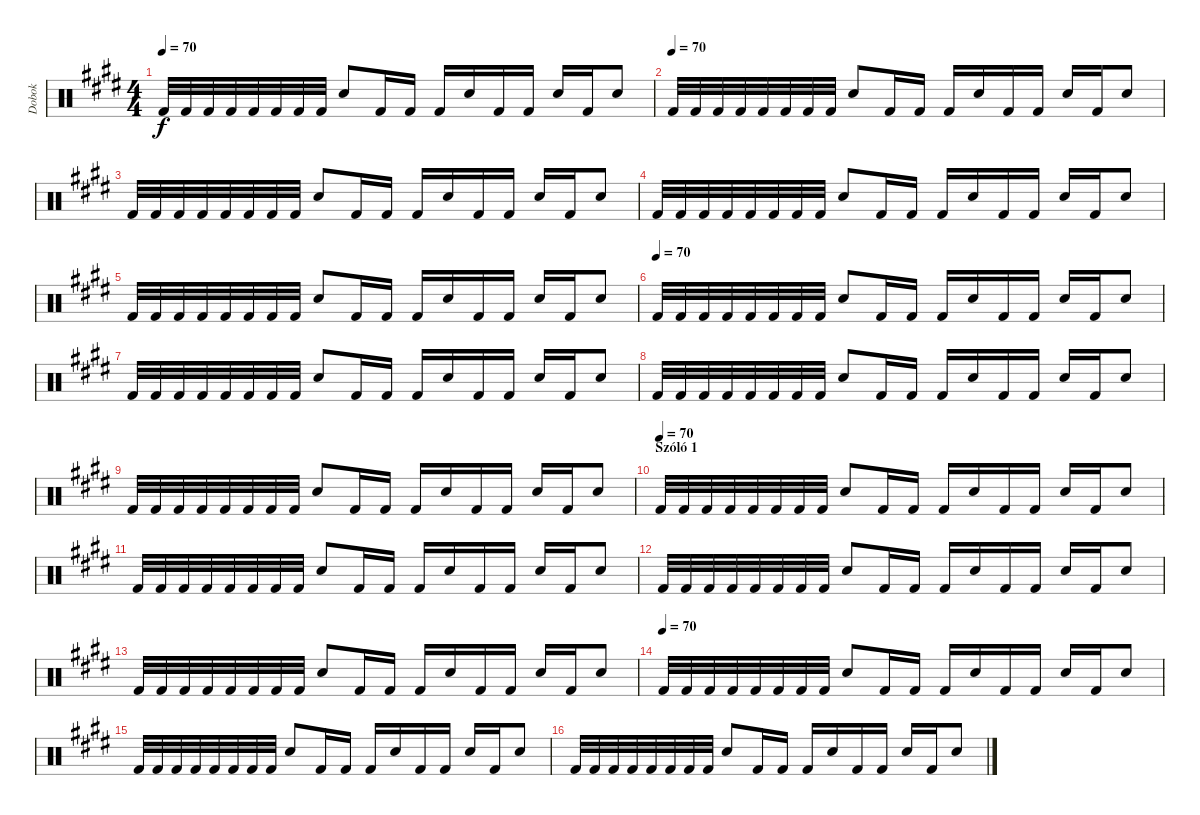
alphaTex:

\track ("Dobok" "Dobok") {instrument percussion}
\staff {score}
\articulation defaults
\ts (4 4)
\tempo 70
\clef neutral
\ks c#minor "Kick (hit) 2".32{dy f} "Kick (hit) 2".32 "Kick (hit) 2".32 "Kick (hit) 2".32 "Kick (hit) 2".32 "Kick (hit) 2".32 "Kick (hit) 2".32 "Kick (hit) 2".32 "Snare (hit) 2".8 "Kick (hit) 2".16 "Kick (hit) 2".16 "Kick (hit) 2".16 "Snare (hit) 2".16 "Kick (hit) 2".16 "Kick (hit) 2".16 "Snare (hit) 2".16 "Kick (hit) 2".16 "Snare (hit) 2".8
|
\tempo (70)
"Kick (hit) 2".32 "Kick (hit) 2".32 "Kick (hit) 2".32 "Kick (hit) 2".32 "Kick (hit) 2".32 "Kick (hit) 2".32 "Kick (hit) 2".32 "Kick (hit) 2".32 "Snare (hit) 2".8 "Kick (hit) 2".16 "Kick (hit) 2".16 "Kick (hit) 2".16 "Snare (hit) 2".16 "Kick (hit) 2".16 "Kick (hit) 2".16 "Snare (hit) 2".16 "Kick (hit) 2".16 "Snare (hit) 2".8 |
"Kick (hit) 2".32 "Kick (hit) 2".32 "Kick (hit) 2".32 "Kick (hit) 2".32 "Kick (hit) 2".32 "Kick (hit) 2".32 "Kick (hit) 2".32 "Kick (hit) 2".32 "Snare (hit) 2".8 "Kick (hit) 2".16 "Kick (hit) 2".16 "Kick (hit) 2".16 "Snare (hit) 2".16 "Kick (hit) 2".16 "Kick (hit) 2".16 "Snare (hit) 2".16 "Kick (hit) 2".16 "Snare (hit) 2".8 |
"Kick (hit) 2".32 "Kick (hit) 2".32 "Kick (hit) 2".32 "Kick (hit) 2".32 "Kick (hit) 2".32 "Kick (hit) 2".32 "Kick (hit) 2".32 "Kick (hit) 2".32 "Snare (hit) 2".8 "Kick (hit) 2".16 "Kick (hit) 2".16 "Kick (hit) 2".16 "Snare (hit) 2".16 "Kick (hit) 2".16 "Kick (hit) 2".16 "Snare (hit) 2".16 "Kick (hit) 2".16 "Snare (hit) 2".8 |
"Kick (hit) 2".32 "Kick (hit) 2".32 "Kick (hit) 2".32 "Kick (hit) 2".32 "Kick (hit) 2".32 "Kick (hit) 2".32 "Kick (hit) 2".32 "Kick (hit) 2".32 "Snare (hit) 2".8 "Kick (hit) 2".16 "Kick (hit) 2".16 "Kick (hit) 2".16 "Snare (hit) 2".16 "Kick (hit) 2".16 "Kick (hit) 2".16 "Snare (hit) 2".16 "Kick (hit) 2".16 "Snare (hit) 2".8 |
\tempo (70)
"Kick (hit) 2".32 "Kick (hit) 2".32 "Kick (hit) 2".32 "Kick (hit) 2".32 "Kick (hit) 2".32 "Kick (hit) 2".32 "Kick (hit) 2".32 "Kick (hit) 2".32 "Snare (hit) 2".8 "Kick (hit) 2".16 "Kick (hit) 2".16 "Kick (hit) 2".16 "Snare (hit) 2".16 "Kick (hit) 2".16 "Kick (hit) 2".16 "Snare (hit) 2".16 "Kick (hit) 2".16 "Snare (hit) 2".8 |
"Kick (hit) 2".32 "Kick (hit) 2".32 "Kick (hit) 2".32 "Kick (hit) 2".32 "Kick (hit) 2".32 "Kick (hit) 2".32 "Kick (hit) 2".32 "Kick (hit) 2".32 "Snare (hit) 2".8 "Kick (hit) 2".16 "Kick (hit) 2".16 "Kick (hit) 2".16 "Snare (hit) 2".16 "Kick (hit) 2".16 "Kick (hit) 2".16 "Snare (hit) 2".16 "Kick (hit) 2".16 "Snare (hit) 2".8 |
"Kick (hit) 2".32 "Kick (hit) 2".32 "Kick (hit) 2".32 "Kick (hit) 2".32 "Kick (hit) 2".32 "Kick (hit) 2".32 "Kick (hit) 2".32 "Kick (hit) 2".32 "Snare (hit) 2".8 "Kick (hit) 2".16 "Kick (hit) 2".16 "Kick (hit) 2".16 "Snare (hit) 2".16 "Kick (hit) 2".16 "Kick (hit) 2".16 "Snare (hit) 2".16 "Kick (hit) 2".16 "Snare (hit) 2".8 |
"Kick (hit) 2".32 "Kick (hit) 2".32 "Kick (hit) 2".32 "Kick (hit) 2".32 "Kick (hit) 2".32 "Kick (hit) 2".32 "Kick (hit) 2".32 "Kick (hit) 2".32 "Snare (hit) 2".8 "Kick (hit) 2".16 "Kick (hit) 2".16 "Kick (hit) 2".16 "Snare (hit) 2".16 "Kick (hit) 2".16 "Kick (hit) 2".16 "Snare (hit) 2".16 "Kick (hit) 2".16 "Snare (hit) 2".8 |
\section ("" "Szóló 1")
\tempo (70)
"Kick (hit) 2".32 "Kick (hit) 2".32 "Kick (hit) 2".32 "Kick (hit) 2".32 "Kick (hit) 2".32 "Kick (hit) 2".32 "Kick (hit) 2".32 "Kick (hit) 2".32 "Snare (hit) 2".8 "Kick (hit) 2".16 "Kick (hit) 2".16 "Kick (hit) 2".16 "Snare (hit) 2".16 "Kick (hit) 2".16 "Kick (hit) 2".16 "Snare (hit) 2".16 "Kick (hit) 2".16 "Snare (hit) 2".8 |
"Kick (hit) 2".32 "Kick (hit) 2".32 "Kick (hit) 2".32 "Kick (hit) 2".32 "Kick (hit) 2".32 "Kick (hit) 2".32 "Kick (hit) 2".32 "Kick (hit) 2".32 "Snare (hit) 2".8 "Kick (hit) 2".16 "Kick (hit) 2".16 "Kick (hit) 2".16 "Snare (hit) 2".16 "Kick (hit) 2".16 "Kick (hit) 2".16 "Snare (hit) 2".16 "Kick (hit) 2".16 "Snare (hit) 2".8 |
"Kick (hit) 2".32 "Kick (hit) 2".32 "Kick (hit) 2".32 "Kick (hit) 2".32 "Kick (hit) 2".32 "Kick (hit) 2".32 "Kick (hit) 2".32 "Kick (hit) 2".32 "Snare (hit) 2".8 "Kick (hit) 2".16 "Kick (hit) 2".16 "Kick (hit) 2".16 "Snare (hit) 2".16 "Kick (hit) 2".16 "Kick (hit) 2".16 "Snare (hit) 2".16 "Kick (hit) 2".16 "Snare (hit) 2".8 |
"Kick (hit) 2".32 "Kick (hit) 2".32 "Kick (hit) 2".32 "Kick (hit) 2".32 "Kick (hit) 2".32 "Kick (hit) 2".32 "Kick (hit) 2".32 "Kick (hit) 2".32 "Snare (hit) 2".8 "Kick (hit) 2".16 "Kick (hit) 2".16 "Kick (hit) 2".16 "Snare (hit) 2".16 "Kick (hit) 2".16 "Kick (hit) 2".16 "Snare (hit) 2".16 "Kick (hit) 2".16 "Snare (hit) 2".8 |
\tempo (70)
"Kick (hit) 2".32 "Kick (hit) 2".32 "Kick (hit) 2".32 "Kick (hit) 2".32 "Kick (hit) 2".32 "Kick (hit) 2".32 "Kick (hit) 2".32 "Kick (hit) 2".32 "Snare (hit) 2".8 "Kick (hit) 2".16 "Kick (hit) 2".16 "Kick (hit) 2".16 "Snare (hit) 2".16 "Kick (hit) 2".16 "Kick (hit) 2".16 "Snare (hit) 2".16 "Kick (hit) 2".16 "Snare (hit) 2".8 |
"Kick (hit) 2".32 "Kick (hit) 2".32 "Kick (hit) 2".32 "Kick (hit) 2".32 "Kick (hit) 2".32 "Kick (hit) 2".32 "Kick (hit) 2".32 "Kick (hit) 2".32 "Snare (hit) 2".8 "Kick (hit) 2".16 "Kick (hit) 2".16 "Kick (hit) 2".16 "Snare (hit) 2".16 "Kick (hit) 2".16 "Kick (hit) 2".16 "Snare (hit) 2".16 "Kick (hit) 2".16 "Snare (hit) 2".8 |
"Kick (hit) 2".32 "Kick (hit) 2".32 "Kick (hit) 2".32 "Kick (hit) 2".32 "Kick (hit) 2".32 "Kick (hit) 2".32 "Kick (hit) 2".32 "Kick (hit) 2".32 "Snare (hit) 2".8 "Kick (hit) 2".16 "Kick (hit) 2".16 "Kick (hit) 2".16 "Snare (hit) 2".16 "Kick (hit) 2".16 "Kick (hit) 2".16 "Snare (hit) 2".16 "Kick (hit) 2".16 "Snare (hit) 2".8
